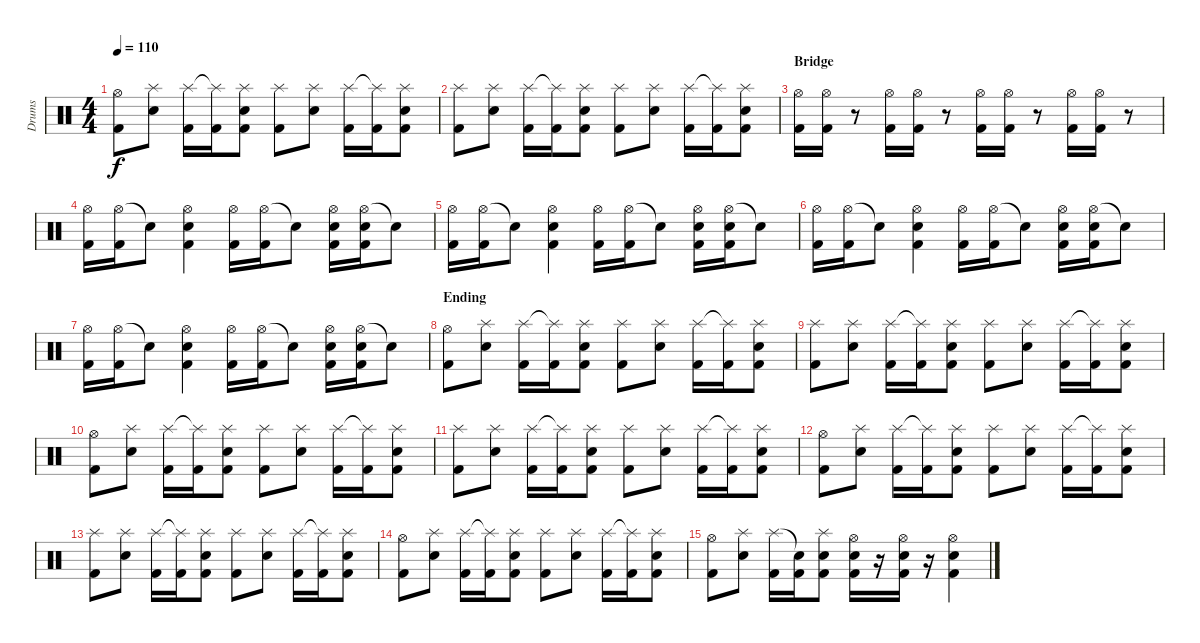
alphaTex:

\track ("Drums" "Drums") {instrument percussion}
\staff {score}
\articulation defaults
\ts (4 4)
\tempo 110
\clef neutral
\ks c
("Hi-Hat (open)" "Kick (hit) 2").8{dy f} ("Splash (hit)" "Electric Snare (hit)").8 ("Splash (hit)" "Kick (hit) 2").16 ("Splash (hit)"{t} "Kick (hit) 2").16 ("Splash (hit)" "Electric Snare (hit)" "Kick (hit) 2").8 ("Splash (hit)" "Kick (hit) 2").8 ("Splash (hit)" "Electric Snare (hit)").8 ("Splash (hit)" "Kick (hit) 2").16 ("Splash (hit)"{t} "Kick (hit) 2").16 ("Splash (hit)" "Electric Snare (hit)" "Kick (hit) 2").8 |
("Splash (hit)" "Kick (hit) 2").8 ("Splash (hit)" "Electric Snare (hit)").8 ("Splash (hit)" "Kick (hit) 2").16 ("Splash (hit)"{t} "Kick (hit) 2").16 ("Splash (hit)" "Electric Snare (hit)" "Kick (hit) 2").8 ("Splash (hit)" "Kick (hit) 2").8 ("Splash (hit)" "Electric Snare (hit)").8 ("Splash (hit)" "Kick (hit) 2").16 ("Splash (hit)"{t} "Kick (hit) 2").16 ("Splash (hit)" "Electric Snare (hit)" "Kick (hit) 2").8 |
\section ("" "Bridge")
("Hi-Hat (open)" "Kick (hit) 2").16 ("Hi-Hat (open)" "Kick (hit) 2").16 r.8 ("Hi-Hat (open)" "Kick (hit) 2").16 ("Hi-Hat (open)" "Kick (hit) 2").16 r.8 ("Hi-Hat (open)" "Kick (hit) 2").16 ("Hi-Hat (open)" "Kick (hit) 2").16 r.8 ("Hi-Hat (open)" "Kick (hit) 2").16 ("Hi-Hat (open)" "Kick (hit) 2").16 r.8 |
("Hi-Hat (open)" "Kick (hit) 2").16 ("Hi-Hat (open)" "Kick (hit) 2").16 "Snare (hit)"{t}.8 ("Hi-Hat (open)" "Electric Snare (hit)" "Kick (hit) 2").4 ("Hi-Hat (open)" "Kick (hit) 2").16 ("Hi-Hat (open)" "Kick (hit) 2").16 "Snare (hit)"{t}.8 ("Hi-Hat (open)" "Electric Snare (hit)" "Kick (hit) 2").16 ("Hi-Hat (open)" "Electric Snare (hit)" "Kick (hit) 2").16 "Snare (hit)"{t}.8 |
("Hi-Hat (open)" "Kick (hit) 2").16 ("Hi-Hat (open)" "Kick (hit) 2").16 "Snare (hit)"{t}.8 ("Hi-Hat (open)" "Electric Snare (hit)" "Kick (hit) 2").4 ("Hi-Hat (open)" "Kick (hit) 2").16 ("Hi-Hat (open)" "Kick (hit) 2").16 "Snare (hit)"{t}.8 ("Hi-Hat (open)" "Electric Snare (hit)" "Kick (hit) 2").16 ("Hi-Hat (open)" "Electric Snare (hit)" "Kick (hit) 2").16 "Snare (hit)"{t}.8 |
("Hi-Hat (open)" "Kick (hit) 2").16 ("Hi-Hat (open)" "Kick (hit) 2").16 "Snare (hit)"{t}.8 ("Hi-Hat (open)" "Electric Snare (hit)" "Kick (hit) 2").4 ("Hi-Hat (open)" "Kick (hit) 2").16 ("Hi-Hat (open)" "Kick (hit) 2").16 "Snare (hit)"{t}.8 ("Hi-Hat (open)" "Electric Snare (hit)" "Kick (hit) 2").16 ("Hi-Hat (open)" "Electric Snare (hit)" "Kick (hit) 2").16 "Snare (hit)"{t}.8 |
("Hi-Hat (open)" "Kick (hit) 2").16 ("Hi-Hat (open)" "Kick (hit) 2").16 "Snare (hit)"{t}.8 ("Hi-Hat (open)" "Electric Snare (hit)" "Kick (hit) 2").4 ("Hi-Hat (open)" "Kick (hit) 2").16 ("Hi-Hat (open)" "Kick (hit) 2").16 "Snare (hit)"{t}.8 ("Hi-Hat (open)" "Electric Snare (hit)" "Kick (hit) 2").16 ("Hi-Hat (open)" "Electric Snare (hit)" "Kick (hit) 2").16 "Snare (hit)"{t}.8 |
\section ("" "Ending")
("Hi-Hat (open)" "Kick (hit) 2").8 ("Splash (hit)" "Electric Snare (hit)").8 ("Splash (hit)" "Kick (hit) 2").16 ("Splash (hit)"{t} "Kick (hit) 2").16 ("Splash (hit)" "Electric Snare (hit)" "Kick (hit) 2").8 ("Splash (hit)" "Kick (hit) 2").8 ("Splash (hit)" "Electric Snare (hit)").8 ("Splash (hit)" "Kick (hit) 2").16 ("Splash (hit)"{t} "Kick (hit) 2").16 ("Splash (hit)" "Electric Snare (hit)" "Kick (hit) 2").8 |
("Splash (hit)" "Kick (hit) 2").8 ("Splash (hit)" "Electric Snare (hit)").8 ("Splash (hit)" "Kick (hit) 2").16 ("Splash (hit)"{t} "Kick (hit) 2").16 ("Splash (hit)" "Electric Snare (hit)" "Kick (hit) 2").8 ("Splash (hit)" "Kick (hit) 2").8 ("Splash (hit)" "Electric Snare (hit)").8 ("Splash (hit)" "Kick (hit) 2").16 ("Splash (hit)"{t} "Kick (hit) 2").16 ("Splash (hit)" "Electric Snare (hit)" "Kick (hit) 2").8 |
("Hi-Hat (open)" "Kick (hit) 2").8 ("Splash (hit)" "Electric Snare (hit)").8 ("Splash (hit)" "Kick (hit) 2").16 ("Splash (hit)"{t} "Kick (hit) 2").16 ("Splash (hit)" "Electric Snare (hit)" "Kick (hit) 2").8 ("Splash (hit)" "Kick (hit) 2").8 ("Splash (hit)" "Electric Snare (hit)").8 ("Splash (hit)" "Kick (hit) 2").16 ("Splash (hit)"{t} "Kick (hit) 2").16 ("Splash (hit)" "Electric Snare (hit)" "Kick (hit) 2").8 |
("Splash (hit)" "Kick (hit) 2").8 ("Splash (hit)" "Electric Snare (hit)").8 ("Splash (hit)" "Kick (hit) 2").16 ("Splash (hit)"{t} "Kick (hit) 2").16 ("Splash (hit)" "Electric Snare (hit)" "Kick (hit) 2").8 ("Splash (hit)" "Kick (hit) 2").8 ("Splash (hit)" "Electric Snare (hit)").8 ("Splash (hit)" "Kick (hit) 2").16 ("Splash (hit)"{t} "Kick (hit) 2").16 ("Splash (hit)" "Electric Snare (hit)" "Kick (hit) 2").8 |
("Hi-Hat (open)" "Kick (hit) 2").8 ("Splash (hit)" "Electric Snare (hit)").8 ("Splash (hit)" "Kick (hit) 2").16 ("Splash (hit)"{t} "Kick (hit) 2").16 ("Splash (hit)" "Electric Snare (hit)" "Kick (hit) 2").8 ("Splash (hit)" "Kick (hit) 2").8 ("Splash (hit)" "Electric Snare (hit)").8 ("Splash (hit)" "Kick (hit) 2").16 ("Splash (hit)"{t} "Kick (hit) 2").16 ("Splash (hit)" "Electric Snare (hit)" "Kick (hit) 2").8 |
("Splash (hit)" "Kick (hit) 2").8 ("Splash (hit)" "Electric Snare (hit)").8 ("Splash (hit)" "Kick (hit) 2").16 ("Splash (hit)"{t} "Kick (hit) 2").16 ("Splash (hit)" "Electric Snare (hit)" "Kick (hit) 2").8 ("Splash (hit)" "Kick (hit) 2").8 ("Splash (hit)" "Electric Snare (hit)").8 ("Splash (hit)" "Kick (hit) 2").16 ("Splash (hit)"{t} "Kick (hit) 2").16 ("Splash (hit)" "Electric Snare (hit)" "Kick (hit) 2").8 |
("Hi-Hat (open)" "Kick (hit) 2").8 ("Splash (hit)" "Electric Snare (hit)").8 ("Splash (hit)" "Kick (hit) 2").16 ("Splash (hit)"{t} "Kick (hit) 2").16 ("Splash (hit)" "Electric Snare (hit)" "Kick (hit) 2").8 ("Splash (hit)" "Kick (hit) 2").8 ("Splash (hit)" "Electric Snare (hit)").8 ("Splash (hit)" "Kick (hit) 2").16 ("Splash (hit)"{t} "Kick (hit) 2").16 ("Splash (hit)" "Electric Snare (hit)" "Kick (hit) 2").8 |
("Hi-Hat (open)" "Kick (hit) 2").8 ("Splash (hit)" "Electric Snare (hit)").8 ("Splash (hit)" "Kick (hit) 2").16 ("Snare (hit)"{t} "Kick (hit) 2").16 ("Splash (hit)" "Electric Snare (hit)" "Kick (hit) 2").8 ("Hi-Hat (open)" "Snare (hit) 2" "Kick (hit) 2").16 r.16 ("Hi-Hat (open)" "Snare (hit) 2" "Kick (hit) 2").16 r.16 ("Hi-Hat (open)" "Electric Snare (hit)" "Kick (hit) 2").4
